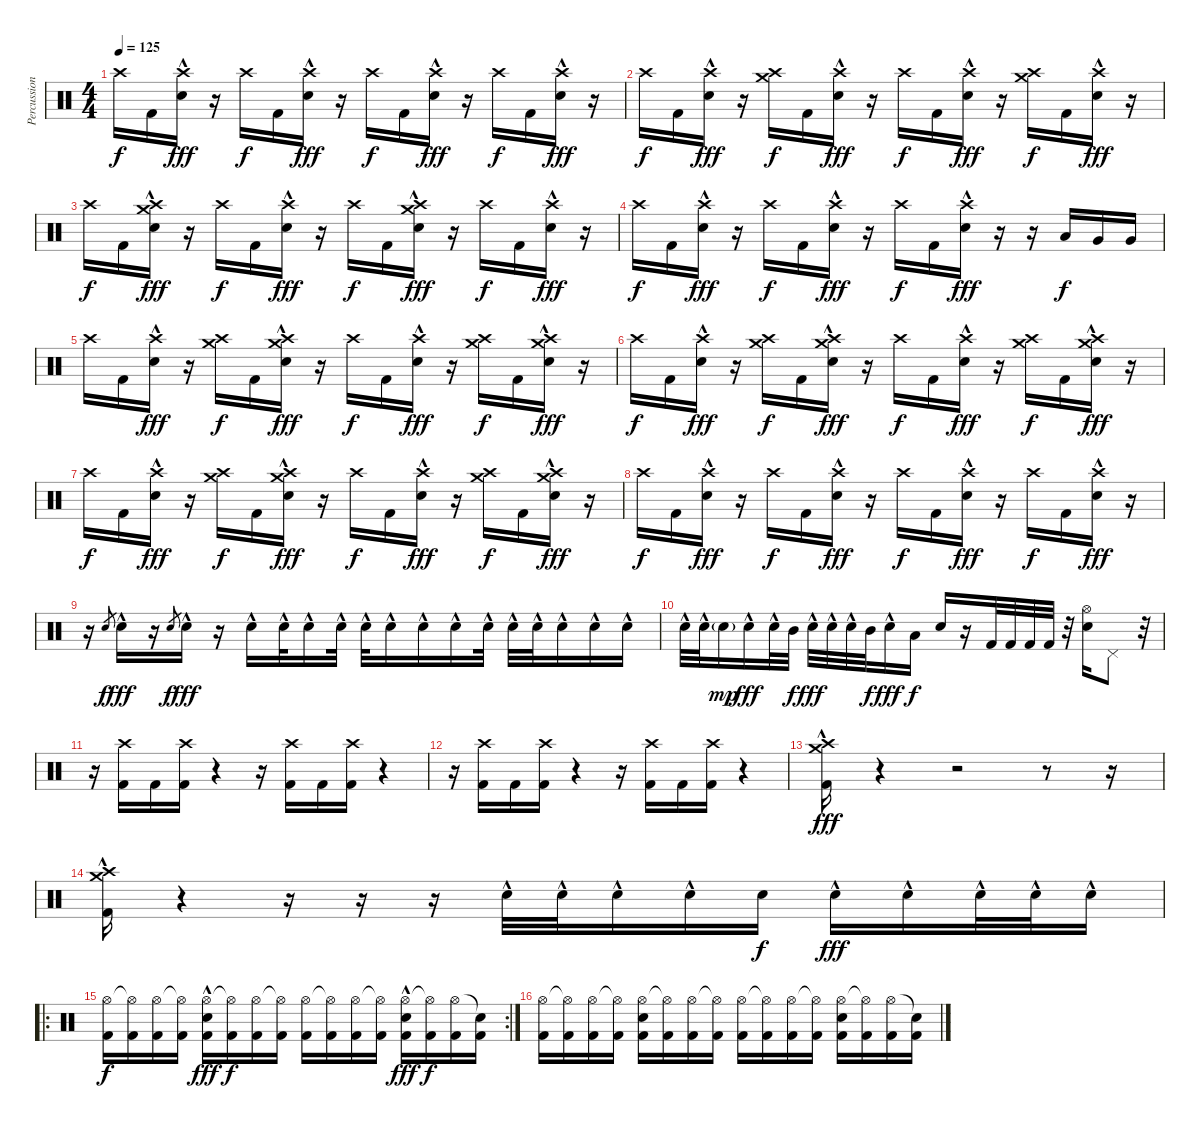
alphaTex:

\track ("Percussion" "Percussion") {instrument percussion}
\staff {score}
\articulation defaults
\ts (4 4)
\tempo 125
\clef neutral
\ks c "Crash high (hit)".16{dy f} "Kick (hit) 2".16
("Crash high (hit)" "Electric Snare (hit)"{hac}).16{dy fff} r.16 "Crash high (hit)".16{dy f} "Kick (hit) 2".16 ("Crash high (hit)" "Electric Snare (hit)"{hac}).16{dy fff} r.16 "Crash high (hit)".16{dy f} "Kick (hit) 2".16 ("Crash high (hit)" "Electric Snare (hit)"{hac}).16{dy fff} r.16 "Crash high (hit)".16{dy f} "Kick (hit) 2".16 ("Crash high (hit)" "Electric Snare (hit)"{hac}).16{dy fff} r.16 |
"Crash high (hit)".16{dy f} "Kick (hit) 2".16 ("Crash high (hit)" "Electric Snare (hit)"{hac}).16{dy fff} r.16 ("Crash medium (hit)" "Crash high (hit)").16{dy f} "Kick (hit) 2".16 ("Crash high (hit)" "Electric Snare (hit)"{hac}).16{dy fff} r.16 "Crash high (hit)".16{dy f} "Kick (hit) 2".16 ("Crash high (hit)" "Electric Snare (hit)"{hac}).16{dy fff} r.16 ("Crash medium (hit)" "Crash high (hit)").16{dy f} "Kick (hit) 2".16 ("Crash high (hit)" "Electric Snare (hit)"{hac}).16{dy fff} r.16 |
"Crash high (hit)".16{dy f} "Kick (hit) 2".16 ("Crash medium (hit)" "Crash high (hit)" "Electric Snare (hit)"{hac}).16{dy fff} r.16 "Crash high (hit)".16{dy f} "Kick (hit) 2".16 ("Crash high (hit)" "Electric Snare (hit)"{hac}).16{dy fff} r.16 "Crash high (hit)".16{dy f} "Kick (hit) 2".16 ("Crash medium (hit)" "Crash high (hit)" "Electric Snare (hit)"{hac}).16{dy fff} r.16 "Crash high (hit)".16{dy f} "Kick (hit) 2".16 ("Crash high (hit)" "Electric Snare (hit)"{hac}).16{dy fff} r.16 |
"Crash high (hit)".16{dy f} "Kick (hit) 2".16 ("Crash high (hit)" "Electric Snare (hit)"{hac}).16{dy fff} r.16 "Crash high (hit)".16{dy f} "Kick (hit) 2".16 ("Crash high (hit)" "Electric Snare (hit)"{hac}).16{dy fff} r.16 "Crash high (hit)".16{dy f} "Kick (hit) 2".16 ("Crash high (hit)" "Electric Snare (hit)"{hac}).16{dy fff} r.16 r.16 "Low Tom (hit)".16{dy f} "Very Low Tom (hit)".16 "Very Low Tom (hit)".16 |
"Crash high (hit)".16 "Kick (hit) 2".16 ("Crash high (hit)" "Electric Snare (hit)"{hac}).16{dy fff} r.16 ("Crash medium (hit)" "Crash high (hit)").16{dy f} "Kick (hit) 2".16 ("Crash medium (hit)" "Crash high (hit)" "Electric Snare (hit)"{hac}).16{dy fff} r.16 "Crash high (hit)".16{dy f} "Kick (hit) 2".16 ("Crash high (hit)" "Electric Snare (hit)"{hac}).16{dy fff} r.16 ("Crash medium (hit)" "Crash high (hit)").16{dy f} "Kick (hit) 2".16 ("Crash medium (hit)" "Crash high (hit)" "Electric Snare (hit)"{hac}).16{dy fff} r.16 |
"Crash high (hit)".16{dy f} "Kick (hit) 2".16 ("Crash high (hit)" "Electric Snare (hit)"{hac}).16{dy fff} r.16 ("Crash medium (hit)" "Crash high (hit)").16{dy f} "Kick (hit) 2".16 ("Crash medium (hit)" "Crash high (hit)" "Electric Snare (hit)"{hac}).16{dy fff} r.16 "Crash high (hit)".16{dy f} "Kick (hit) 2".16 ("Crash high (hit)" "Electric Snare (hit)"{hac}).16{dy fff} r.16 ("Crash medium (hit)" "Crash high (hit)").16{dy f} "Kick (hit) 2".16 ("Crash medium (hit)" "Crash high (hit)" "Electric Snare (hit)"{hac}).16{dy fff} r.16 |
"Crash high (hit)".16{dy f} "Kick (hit) 2".16 ("Crash high (hit)" "Electric Snare (hit)"{hac}).16{dy fff} r.16 ("Crash medium (hit)" "Crash high (hit)").16{dy f} "Kick (hit) 2".16 ("Crash medium (hit)" "Crash high (hit)" "Electric Snare (hit)"{hac}).16{dy fff} r.16 "Crash high (hit)".16{dy f} "Kick (hit) 2".16 ("Crash high (hit)" "Electric Snare (hit)"{hac}).16{dy fff} r.16 ("Crash medium (hit)" "Crash high (hit)").16{dy f} "Kick (hit) 2".16 ("Crash medium (hit)" "Crash high (hit)" "Electric Snare (hit)"{hac}).16{dy fff} r.16 |
"Crash high (hit)".16{dy f} "Kick (hit) 2".16 ("Crash high (hit)" "Electric Snare (hit)"{hac}).16{dy fff} r.16 "Crash high (hit)".16{dy f} "Kick (hit) 2".16 ("Crash high (hit)" "Electric Snare (hit)"{hac}).16{dy fff} r.16 "Crash high (hit)".16{dy f} "Kick (hit) 2".16 ("Crash high (hit)" "Electric Snare (hit)"{hac}).16{dy fff} r.16 "Crash high (hit)".16{dy f} "Kick (hit) 2".16 ("Crash high (hit)" "Electric Snare (hit)"{hac}).16{dy fff} r.16 |
r.16 "Electric Snare (hit)".8{gr dy f} "Electric Snare (hit)"{hac}.16{dy fff} r.16 "Electric Snare (hit)".8{gr dy f} "Electric Snare (hit)"{hac}.16{dy fff} r.16 "Electric Snare (hit)"{hac}.16 "Electric Snare (hit)"{hac}.32 "Electric Snare (hit)"{hac}.16 "Electric Snare (hit)"{hac}.32 "Electric Snare (hit)"{hac}.32 "Electric Snare (hit)"{hac}.16 "Electric Snare (hit)"{hac}.16 "Electric Snare (hit)"{hac}.16 "Electric Snare (hit)"{hac}.32 "Electric Snare (hit)"{hac}.32 "Electric Snare (hit)"{hac}.32 "Electric Snare (hit)"{hac}.16 "Electric Snare (hit)"{hac}.16 "Electric Snare (hit)"{hac}.16 |
"Electric Snare (hit)"{hac}.32 "Electric Snare (hit)"{hac}.32 "Electric Snare (hit)"{g}.16{dy mp} "Electric Snare (hit)"{hac}.16{dy fff} "Electric Snare (hit)"{hac}.32 "Mid Tom (hit)".32{dy f} "Electric Snare (hit)"{hac}.32{dy fff} "Electric Snare (hit)"{hac}.32 "Electric Snare (hit)"{hac}.32 "Mid Tom (hit)".32{dy f} "Electric Snare (hit)"{hac}.16{dy fff} "Low Tom (hit)".16{dy f} "Electric Snare (hit)".16 r.16 "Kick (hit) 2".32 "Kick (hit) 2".32 "Kick (hit) 2".32 "Kick (hit) 2".32 r.32 ("Hi-Hat (open)" "Electric Snare (hit)").16 "Pedal Hi-Hat (hit)".8 r.32 |
r.16 ("Crash high (hit)" "Kick (hit) 2").16 "Kick (hit) 2".16 ("Crash high (hit)" "Kick (hit) 2").16 r.4 r.16 ("Crash high (hit)" "Kick (hit) 2").16 "Kick (hit) 2".16 ("Crash high (hit)" "Kick (hit) 2").16 r.4 |
r.16 ("Crash high (hit)" "Kick (hit) 2").16 "Kick (hit) 2".16 ("Crash high (hit)" "Kick (hit) 2").16 r.4 r.16 ("Crash high (hit)" "Kick (hit) 2").16 "Kick (hit) 2".16 ("Crash high (hit)" "Kick (hit) 2").16 r.4 |
("Crash high (hit)" "Crash medium (hit)" "Kick (hit) 2"{hac}).16{dy fff} r.4 r.2 r.8 r.16 |
("Crash high (hit)" "Crash medium (hit)"{hac} "Kick (hit) 2").16 r.4 r.16 r.16 r.16 "Electric Snare (hit)"{hac}.32 "Electric Snare (hit)"{hac}.32 "Electric Snare (hit)"{hac}.16 "Electric Snare (hit)"{hac}.16 "Electric Snare (hit)".16{dy f} "Electric Snare (hit)"{hac}.16{dy fff} "Electric Snare (hit)"{hac}.16 "Electric Snare (hit)"{hac}.32 "Electric Snare (hit)"{hac}.32 "Electric Snare (hit)"{hac}.16 |
\ro
\rc 2
("Hi-Hat (open)" "Kick (hit) 2").16{dy f} ("Hi-Hat (open)"{t} "Kick (hit) 2").16 ("Hi-Hat (open)" "Kick (hit) 2").16 ("Hi-Hat (open)"{t} "Kick (hit) 2").16 ("Hi-Hat (open)" "Electric Snare (hit)"{hac} "Kick (hit) 2").16{dy fff} ("Hi-Hat (open)"{t} "Kick (hit) 2").16{dy f} ("Hi-Hat (open)" "Kick (hit) 2").16 ("Hi-Hat (open)"{t} "Kick (hit) 2").16 ("Hi-Hat (open)" "Kick (hit) 2").16 ("Hi-Hat (open)"{t} "Kick (hit) 2").16 ("Hi-Hat (open)" "Kick (hit) 2").16 ("Hi-Hat (open)"{t} "Kick (hit) 2").16 ("Hi-Hat (open)" "Electric Snare (hit)"{hac} "Kick (hit) 2").16{dy fff} ("Hi-Hat (open)"{t} "Kick (hit) 2").16{dy f} ("Hi-Hat (open)" "Kick (hit) 2").16 ("Snare (hit)"{t} "Kick (hit) 2").16 |
("Hi-Hat (open)" "Kick (hit) 2").16 ("Hi-Hat (open)"{t} "Kick (hit) 2").16 ("Hi-Hat (open)" "Kick (hit) 2").16 ("Hi-Hat (open)"{t} "Kick (hit) 2").16 ("Hi-Hat (open)" "Electric Snare (hit)" "Kick (hit) 2").16 ("Hi-Hat (open)"{t} "Kick (hit) 2").16 ("Hi-Hat (open)" "Kick (hit) 2").16 ("Hi-Hat (open)"{t} "Kick (hit) 2").16 ("Hi-Hat (open)" "Kick (hit) 2").16 ("Hi-Hat (open)"{t} "Kick (hit) 2").16 ("Hi-Hat (open)" "Kick (hit) 2").16 ("Hi-Hat (open)"{t} "Kick (hit) 2").16 ("Hi-Hat (open)" "Electric Snare (hit)" "Kick (hit) 2").16 ("Hi-Hat (open)"{t} "Kick (hit) 2").16 ("Hi-Hat (open)" "Kick (hit) 2").16 ("Snare (hit)"{t} "Kick (hit) 2").16
